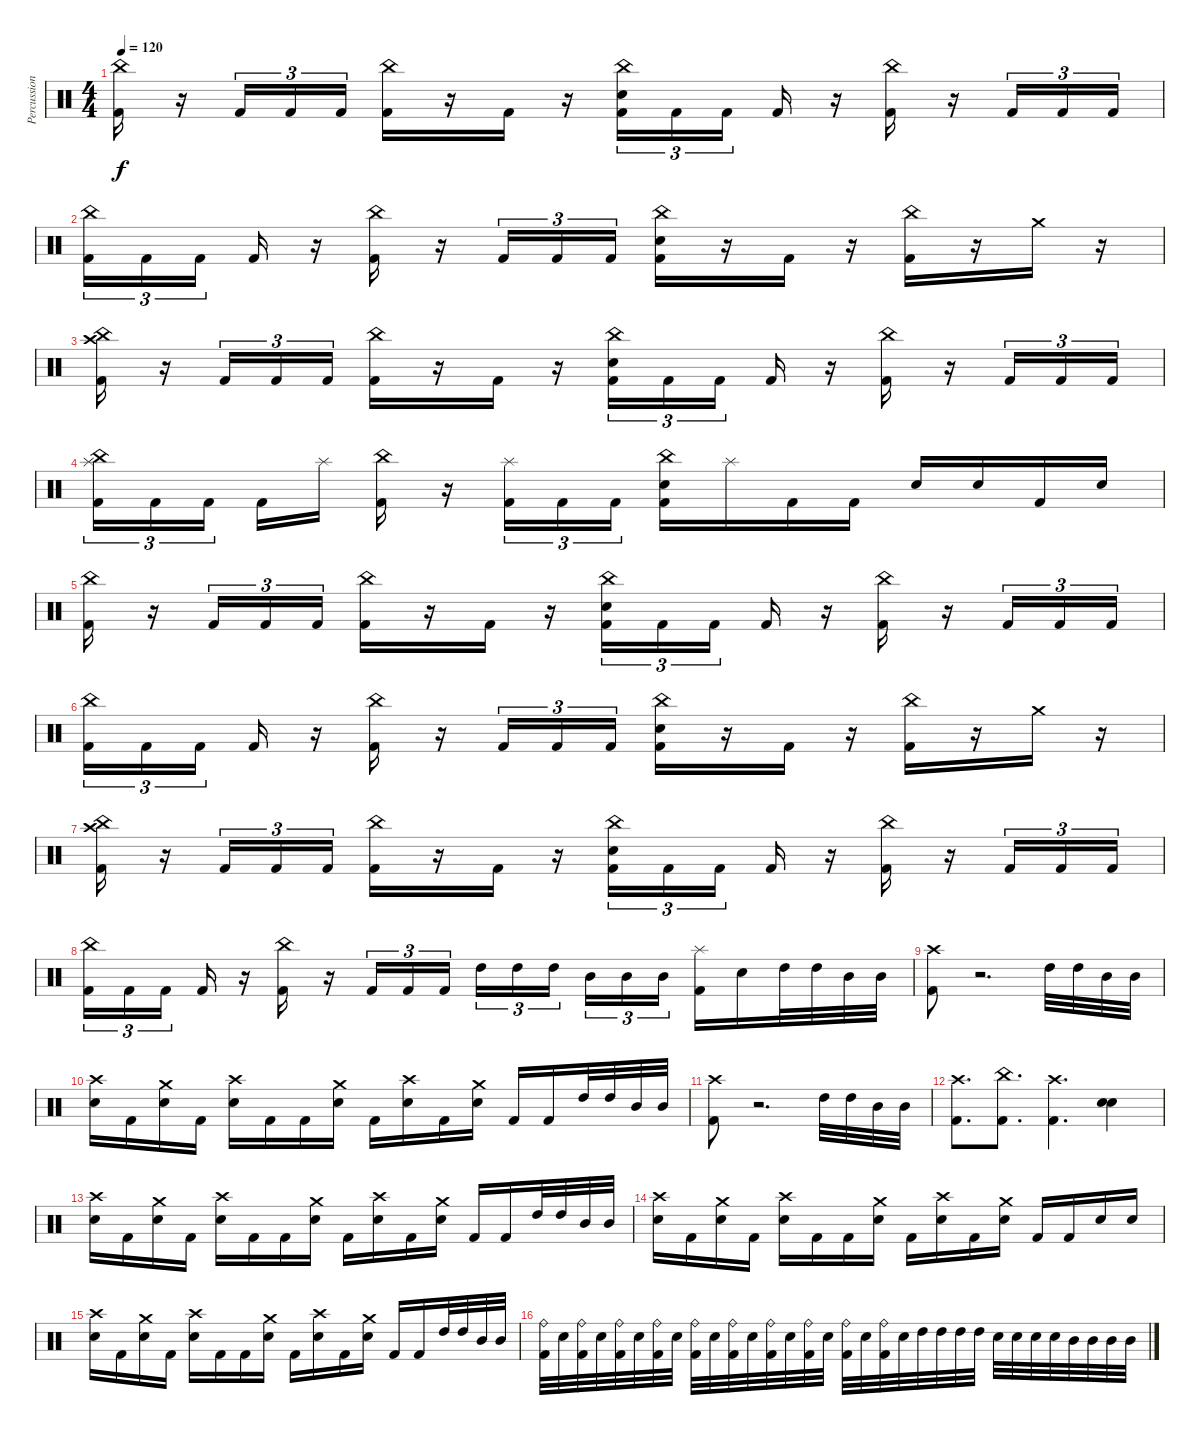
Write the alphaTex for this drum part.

\track ("Percussion" "Percussion") {instrument percussion}
\staff {score}
\articulation defaults
\ts (4 4)
\tempo 120
\clef neutral
\ks c
("China (hit)" "Kick (hit) 2").16{dy f} r.16 "Kick (hit) 2".16{tu (3 2)} "Kick (hit) 2".16{tu (3 2)} "Kick (hit) 2".16{tu (3 2)} ("China (hit)" "Kick (hit) 2").16 r.16 "Kick (hit) 2".16 r.16 ("China (hit)" "Electric Snare (hit)" "Kick (hit) 2").16{tu (3 2)} "Kick (hit) 2".16{tu (3 2)} "Kick (hit) 2".16{tu (3 2) beam splitsecondary} "Kick (hit) 2".16 r.16 ("China (hit)" "Kick (hit) 2").16 r.16 "Kick (hit) 2".16{tu (3 2)} "Kick (hit) 2".16{tu (3 2)} "Kick (hit) 2".16{tu (3 2)} |
("China (hit)" "Kick (hit) 2").16{tu (3 2)} "Kick (hit) 2".16{tu (3 2)} "Kick (hit) 2".16{tu (3 2) beam splitsecondary} "Kick (hit) 2".16 r.16 ("China (hit)" "Kick (hit) 2").16 r.16 "Kick (hit) 2".16{tu (3 2)} "Kick (hit) 2".16{tu (3 2)} "Kick (hit) 2".16{tu (3 2)} ("China (hit)" "Electric Snare (hit)" "Kick (hit) 2").16 r.16 "Kick (hit) 2".16 r.16 ("China (hit)" "Kick (hit) 2").16 r.16 "Crash medium (hit)".16 r.16 |
("Crash high (hit)" "China (hit)" "Kick (hit) 2").16 r.16 "Kick (hit) 2".16{tu (3 2)} "Kick (hit) 2".16{tu (3 2)} "Kick (hit) 2".16{tu (3 2)} ("China (hit)" "Kick (hit) 2").16 r.16 "Kick (hit) 2".16 r.16 ("China (hit)" "Electric Snare (hit)" "Kick (hit) 2").16{tu (3 2)} "Kick (hit) 2".16{tu (3 2)} "Kick (hit) 2".16{tu (3 2) beam splitsecondary} "Kick (hit) 2".16 r.16 ("China (hit)" "Kick (hit) 2").16 r.16 "Kick (hit) 2".16{tu (3 2)} "Kick (hit) 2".16{tu (3 2)} "Kick (hit) 2".16{tu (3 2)} |
("Splash (hit)" "China (hit)" "Kick (hit) 2").16{tu (3 2)} "Kick (hit) 2".16{tu (3 2)} "Kick (hit) 2".16{tu (3 2) beam splitsecondary} "Kick (hit) 2".16 "Splash (hit)".16 ("China (hit)" "Kick (hit) 2").16 r.16 ("Splash (hit)" "Kick (hit) 2").16{tu (3 2)} "Kick (hit) 2".16{tu (3 2)} "Kick (hit) 2".16{tu (3 2)} ("China (hit)" "Electric Snare (hit)" "Kick (hit) 2").16 "Splash (hit)".16 "Kick (hit) 2".16 "Kick (hit) 2".16 "Electric Snare (hit)".16 "Electric Snare (hit)".16 "Kick (hit) 2".16 "Electric Snare (hit)".16 |
("China (hit)" "Kick (hit) 2").16 r.16 "Kick (hit) 2".16{tu (3 2)} "Kick (hit) 2".16{tu (3 2)} "Kick (hit) 2".16{tu (3 2)} ("China (hit)" "Kick (hit) 2").16 r.16 "Kick (hit) 2".16 r.16 ("China (hit)" "Electric Snare (hit)" "Kick (hit) 2").16{tu (3 2)} "Kick (hit) 2".16{tu (3 2)} "Kick (hit) 2".16{tu (3 2) beam splitsecondary} "Kick (hit) 2".16 r.16 ("China (hit)" "Kick (hit) 2").16 r.16 "Kick (hit) 2".16{tu (3 2)} "Kick (hit) 2".16{tu (3 2)} "Kick (hit) 2".16{tu (3 2)} |
("China (hit)" "Kick (hit) 2").16{tu (3 2)} "Kick (hit) 2".16{tu (3 2)} "Kick (hit) 2".16{tu (3 2) beam splitsecondary} "Kick (hit) 2".16 r.16 ("China (hit)" "Kick (hit) 2").16 r.16 "Kick (hit) 2".16{tu (3 2)} "Kick (hit) 2".16{tu (3 2)} "Kick (hit) 2".16{tu (3 2)} ("China (hit)" "Electric Snare (hit)" "Kick (hit) 2").16 r.16 "Kick (hit) 2".16 r.16 ("China (hit)" "Kick (hit) 2").16 r.16 "Crash medium (hit)".16 r.16 |
("Crash high (hit)" "China (hit)" "Kick (hit) 2").16 r.16 "Kick (hit) 2".16{tu (3 2)} "Kick (hit) 2".16{tu (3 2)} "Kick (hit) 2".16{tu (3 2)} ("China (hit)" "Kick (hit) 2").16 r.16 "Kick (hit) 2".16 r.16 ("China (hit)" "Electric Snare (hit)" "Kick (hit) 2").16{tu (3 2)} "Kick (hit) 2".16{tu (3 2)} "Kick (hit) 2".16{tu (3 2) beam splitsecondary} "Kick (hit) 2".16 r.16 ("China (hit)" "Kick (hit) 2").16 r.16 "Kick (hit) 2".16{tu (3 2)} "Kick (hit) 2".16{tu (3 2)} "Kick (hit) 2".16{tu (3 2)} |
("China (hit)" "Kick (hit) 2").16{tu (3 2)} "Kick (hit) 2".16{tu (3 2)} "Kick (hit) 2".16{tu (3 2) beam splitsecondary} "Kick (hit) 2".16 r.16 ("China (hit)" "Kick (hit) 2").16 r.16 "Kick (hit) 2".16{tu (3 2)} "Kick (hit) 2".16{tu (3 2)} "Kick (hit) 2".16{tu (3 2)} "High Tom (hit)".16{tu (3 2)} "High Tom (hit)".16{tu (3 2)} "High Tom (hit)".16{tu (3 2) beam splitsecondary} "Mid Tom (hit)".16{tu (3 2)} "Mid Tom (hit)".16{tu (3 2)} "Mid Tom (hit)".16{tu (3 2)} ("Splash (hit)" "Kick (hit) 2").16 "Electric Snare (hit)".16 "High Tom (hit)".32 "High Tom (hit)".32 "Mid Tom (hit)".32 "Mid Tom (hit)".32 |
("Crash high (hit)" "Kick (hit) 2").8 r.2{d volume 0} "High Tom (hit)".32{volume 13} "High Tom (hit)".32 "Mid Tom (hit)".32 "Mid Tom (hit)".32 |
("Crash high (hit)" "Electric Snare (hit)").16 "Kick (hit) 2".16 ("Crash medium (hit)" "Electric Snare (hit)").16 "Kick (hit) 2".16 ("Crash high (hit)" "Electric Snare (hit)").16 "Kick (hit) 2".16 "Kick (hit) 2".16 ("Crash medium (hit)" "Electric Snare (hit)").16 "Kick (hit) 2".16 ("Crash high (hit)" "Electric Snare (hit)").16 "Kick (hit) 2".16 ("Crash medium (hit)" "Electric Snare (hit)").16 "Kick (hit) 2".16 "Kick (hit) 2".16 "High Tom (hit)".32 "High Tom (hit)".32 "Mid Tom (hit)".32 "Mid Tom (hit)".32 |
("Crash high (hit)" "Kick (hit) 2").8 r.2{d volume 0} "High Tom (hit)".32{volume 13} "High Tom (hit)".32 "Mid Tom (hit)".32 "Mid Tom (hit)".32 |
("Crash high (hit)" "Kick (hit) 2").8{d} ("China (hit)" "Kick (hit) 2").8{d} ("Crash high (hit)" "Kick (hit) 2").4{d} ("Electric Snare (hit)" "Electric Snare (hit)").4 |
("Crash high (hit)" "Electric Snare (hit)").16 "Kick (hit) 2".16 ("Crash medium (hit)" "Electric Snare (hit)").16 "Kick (hit) 2".16 ("Crash high (hit)" "Electric Snare (hit)").16 "Kick (hit) 2".16 "Kick (hit) 2".16 ("Crash medium (hit)" "Electric Snare (hit)").16 "Kick (hit) 2".16 ("Crash high (hit)" "Electric Snare (hit)").16 "Kick (hit) 2".16 ("Crash medium (hit)" "Electric Snare (hit)").16 "Kick (hit) 2".16 "Kick (hit) 2".16 "High Tom (hit)".32 "High Tom (hit)".32 "Mid Tom (hit)".32 "Mid Tom (hit)".32 |
("Crash high (hit)" "Electric Snare (hit)").16 "Kick (hit) 2".16 ("Crash medium (hit)" "Electric Snare (hit)").16 "Kick (hit) 2".16 ("Crash high (hit)" "Electric Snare (hit)").16 "Kick (hit) 2".16 "Kick (hit) 2".16 ("Crash medium (hit)" "Electric Snare (hit)").16 "Kick (hit) 2".16 ("Crash high (hit)" "Electric Snare (hit)").16 "Kick (hit) 2".16 ("Crash medium (hit)" "Electric Snare (hit)").16 "Kick (hit) 2".16 "Kick (hit) 2".16 "Electric Snare (hit)".16 "Electric Snare (hit)".16 |
("Crash high (hit)" "Electric Snare (hit)").16 "Kick (hit) 2".16 ("Crash medium (hit)" "Electric Snare (hit)").16 "Kick (hit) 2".16 ("Crash high (hit)" "Electric Snare (hit)").16 "Kick (hit) 2".16 "Kick (hit) 2".16 ("Crash medium (hit)" "Electric Snare (hit)").16 "Kick (hit) 2".16 ("Crash high (hit)" "Electric Snare (hit)").16 "Kick (hit) 2".16 ("Crash medium (hit)" "Electric Snare (hit)").16 "Kick (hit) 2".16 "Kick (hit) 2".16 "High Tom (hit)".32 "High Tom (hit)".32 "Mid Tom (hit)".32 "Mid Tom (hit)".32 |
("Ride (bell)" "Kick (hit) 2").32 "Electric Snare (hit)".32 ("Ride (bell)" "Kick (hit) 2").32 "Electric Snare (hit)".32 ("Ride (bell)" "Kick (hit) 2").32 "Electric Snare (hit)".32 ("Ride (bell)" "Kick (hit) 2").32 "Electric Snare (hit)".32 ("Ride (bell)" "Kick (hit) 2").32 "Electric Snare (hit)".32 ("Ride (bell)" "Kick (hit) 2").32 "Electric Snare (hit)".32 ("Ride (bell)" "Kick (hit) 2").32 "Electric Snare (hit)".32 ("Ride (bell)" "Kick (hit) 2").32 "Electric Snare (hit)".32 ("Ride (bell)" "Kick (hit) 2").32 "Electric Snare (hit)".32 ("Ride (bell)" "Kick (hit) 2").32 "Electric Snare (hit)".32 "High Tom (hit)".32 "High Tom (hit)".32 "High Tom (hit)".32 "High Tom (hit)".32 "Electric Snare (hit)".32 "Electric Snare (hit)".32 "Electric Snare (hit)".32 "Electric Snare (hit)".32 "Mid Tom (hit)".32 "Mid Tom (hit)".32 "Mid Tom (hit)".32 "Mid Tom (hit)".32
